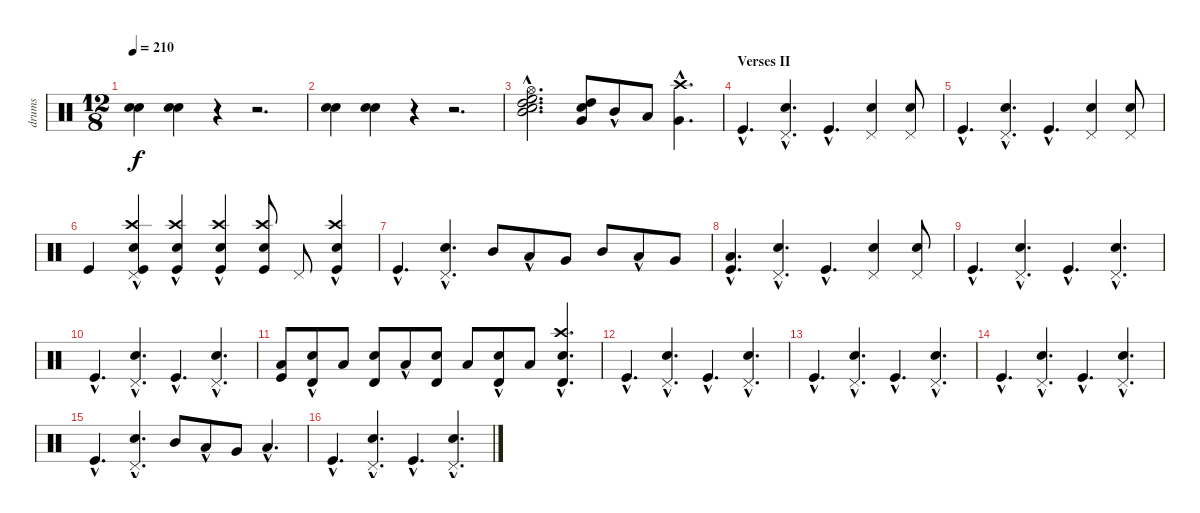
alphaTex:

\track ("drums" "drums") {instrument percussion}
\staff {score}
\articulation defaults
\ts (12 8)
\tempo 210
\clef neutral
\ks c
("Electric Snare (hit)" "Snare (hit) 2").4{dy f} ("Electric Snare (hit)" "Snare (hit) 2").4 r.4 r.2{d} |
("Electric Snare (hit)" "Snare (hit) 2").4 ("Electric Snare (hit)" "Snare (hit) 2").4 r.4 r.2{d} |
("Mid Tom (hit)"{hac} "High Tom (hit)"{hac} "Electric Snare (hit)"{hac} "Hi-Hat (open)"{hac} "High Floor Tom (hit)"{hac}).2{d} ("High Tom (hit)" "Very Low Tom (hit)" "Electric Snare (hit)").8 "Mid Tom (hit)"{hac}.8 "Low Tom (hit)".8 ("Crash high (hit)"{hac} "Very Low Tom (hit)"{hac}).4{d} |
\section ("" "Verses II")
"Kick (hit)"{hac}.4{d} ("Electric Snare (hit)"{hac} "Pedal Hi-Hat (hit)"{hac}).4{d} "Kick (hit)"{hac}.4{d} ("Electric Snare (hit)" "Pedal Hi-Hat (hit)").4 ("Pedal Hi-Hat (hit)" "Electric Snare (hit)").8 |
"Kick (hit)"{hac}.4{d} ("Electric Snare (hit)"{hac} "Pedal Hi-Hat (hit)"{hac}).4{d} "Kick (hit)"{hac}.4{d} ("Electric Snare (hit)" "Pedal Hi-Hat (hit)").4 ("Pedal Hi-Hat (hit)" "Electric Snare (hit)").8 |
"Kick (hit)".4 ("Kick (hit)"{hac} "Crash high (hit)" "Pedal Hi-Hat (hit)"{hac} "Electric Snare (hit)"{hac}).4 ("Kick (hit)"{hac} "Crash high (hit)" "Electric Snare (hit)"{hac}).4 ("Kick (hit)"{hac} "Crash high (hit)" "Electric Snare (hit)"{hac}).4 ("Crash high (hit)" "Kick (hit)" "Electric Snare (hit)").8 "Pedal Hi-Hat (hit)".8 ("Crash high (hit)" "Electric Snare (hit)"{hac} "Kick (hit)"{hac}).4 |
"Kick (hit)"{hac}.4{d} ("Electric Snare (hit)"{hac} "Pedal Hi-Hat (hit)"{hac}).4{d} "Mid Tom (hit)".8 "Low Tom (hit)"{hac}.8 "Very Low Tom (hit)".8 "Mid Tom (hit)".8 "Low Tom (hit)"{hac}.8 "Very Low Tom (hit)".8 |
("Kick (hit)"{hac} "Low Floor Tom (hit)"{hac}).4{d} ("Electric Snare (hit)"{hac} "Pedal Hi-Hat (hit)"{hac}).4{d} "Kick (hit)"{hac}.4{d} ("Electric Snare (hit)" "Pedal Hi-Hat (hit)").4 ("Pedal Hi-Hat (hit)" "Electric Snare (hit)").8 |
"Kick (hit)"{hac}.4{d} ("Electric Snare (hit)"{hac} "Pedal Hi-Hat (hit)"{hac}).4{d} "Kick (hit)"{hac}.4{d} ("Electric Snare (hit)"{hac} "Pedal Hi-Hat (hit)"{hac}).4{d} |
"Kick (hit)"{hac}.4{d} ("Electric Snare (hit)"{hac} "Pedal Hi-Hat (hit)"{hac}).4{d} "Kick (hit)"{hac}.4{d} ("Electric Snare (hit)"{hac} "Pedal Hi-Hat (hit)"{hac}).4{d} |
("Kick (hit)" "Low Floor Tom (hit)").8 ("Electric Snare (hit)"{hac} "Timbale high (hit)"{hac}).8 "Low Floor Tom (hit)".8 ("Electric Snare (hit)" "Timbale high (hit)").8 "Low Floor Tom (hit)"{hac}.8 ("Electric Snare (hit)" "Timbale high (hit)").8 "Low Floor Tom (hit)".8 ("Electric Snare (hit)"{hac} "Timbale high (hit)"{hac}).8 "Low Floor Tom (hit)".8 ("Electric Snare (hit)"{hac} "Crash high (hit)"{hac} "Timbale high (hit)"{hac}).4{d} |
"Kick (hit)"{hac}.4{d} ("Electric Snare (hit)"{hac} "Pedal Hi-Hat (hit)"{hac}).4{d} "Kick (hit)"{hac}.4{d} ("Electric Snare (hit)"{hac} "Pedal Hi-Hat (hit)"{hac}).4{d} |
"Kick (hit)"{hac}.4{d} ("Electric Snare (hit)"{hac} "Pedal Hi-Hat (hit)"{hac}).4{d} "Kick (hit)"{hac}.4{d} ("Electric Snare (hit)"{hac} "Pedal Hi-Hat (hit)"{hac}).4{d} |
"Kick (hit)"{hac}.4{d} ("Electric Snare (hit)"{hac} "Pedal Hi-Hat (hit)"{hac}).4{d} "Kick (hit)"{hac}.4{d} ("Electric Snare (hit)"{hac} "Pedal Hi-Hat (hit)"{hac}).4{d} |
"Kick (hit)"{hac}.4{d} ("Electric Snare (hit)"{hac} "Pedal Hi-Hat (hit)"{hac}).4{d} "Mid Tom (hit)".8 "Low Tom (hit)"{hac}.8 "Very Low Tom (hit)".8 "Low Floor Tom (hit)"{hac}.4{d} |
"Kick (hit)"{hac}.4{d} ("Electric Snare (hit)"{hac} "Pedal Hi-Hat (hit)"{hac}).4{d} "Kick (hit)"{hac}.4{d} ("Electric Snare (hit)"{hac} "Pedal Hi-Hat (hit)"{hac}).4{d}
